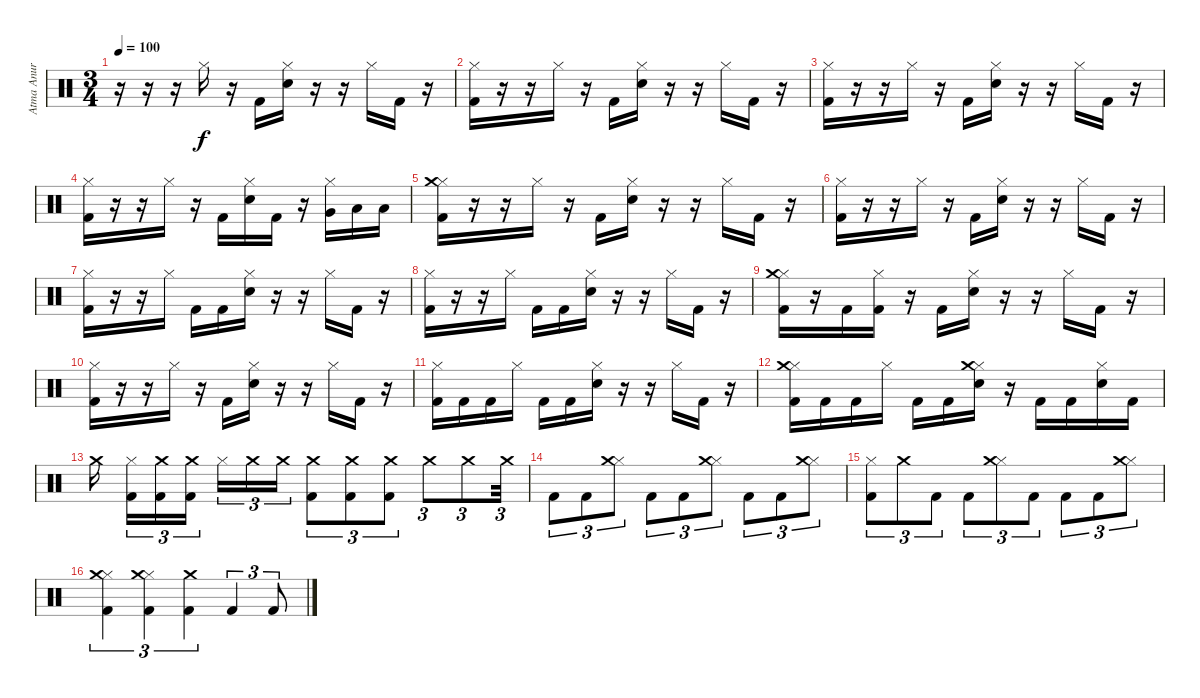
\track ("Atma Anur" "Atma Anur") {instrument percussion}
\staff {score}
\articulation defaults
\ts (3 4)
\tempo 100
\clef neutral
\ks c
r.16{dy f} r.16 r.16 "Hi-Hat (closed)".16 r.16 "Kick (hit) 2".16 ("Hi-Hat (closed)" "Snare (hit) 2").16 r.16 r.16 "Hi-Hat (closed)".16 "Kick (hit) 2".16 r.16 |
("Hi-Hat (closed)" "Kick (hit) 2").16 r.16 r.16 "Hi-Hat (closed)".16 r.16 "Kick (hit) 2".16 ("Hi-Hat (closed)" "Snare (hit) 2").16 r.16 r.16 "Hi-Hat (closed)".16 "Kick (hit) 2".16 r.16 |
("Hi-Hat (closed)" "Kick (hit) 2").16 r.16 r.16 "Hi-Hat (closed)".16 r.16 "Kick (hit) 2".16 ("Hi-Hat (closed)" "Snare (hit) 2").16 r.16 r.16 "Hi-Hat (closed)".16 "Kick (hit) 2".16 r.16 |
("Hi-Hat (closed)" "Kick (hit) 2").16 r.16 r.16 "Hi-Hat (closed)".16 r.16 "Kick (hit) 2".16 ("Hi-Hat (closed)" "Snare (hit) 2").16 "Kick (hit) 2".16 r.16 ("Hi-Hat (closed)" "Very Low Tom (hit)").16 "Low Floor Tom (hit)".16 "Low Floor Tom (hit)".16 |
("Hi-Hat (closed)" "Crash medium (hit)" "Kick (hit) 2").16 r.16 r.16 "Hi-Hat (closed)".16 r.16 "Kick (hit) 2".16 ("Hi-Hat (closed)" "Snare (hit) 2").16 r.16 r.16 "Hi-Hat (closed)".16 "Kick (hit) 2".16 r.16 |
("Hi-Hat (closed)" "Kick (hit) 2").16 r.16 r.16 "Hi-Hat (closed)".16 r.16 "Kick (hit) 2".16 ("Hi-Hat (closed)" "Snare (hit) 2").16 r.16 r.16 "Hi-Hat (closed)".16 "Kick (hit) 2".16 r.16 |
("Hi-Hat (closed)" "Kick (hit) 2").16 r.16 r.16 "Hi-Hat (closed)".16 "Kick (hit) 2".16 "Kick (hit) 2".16 ("Hi-Hat (closed)" "Snare (hit) 2").16 r.16 r.16 "Hi-Hat (closed)".16 "Kick (hit) 2".16 r.16 |
("Hi-Hat (closed)" "Kick (hit) 2").16 r.16 r.16 "Hi-Hat (closed)".16 "Kick (hit) 2".16 "Kick (hit) 2".16 ("Hi-Hat (closed)" "Snare (hit) 2").16 r.16 r.16 "Hi-Hat (closed)".16 "Kick (hit) 2".16 r.16 |
("Hi-Hat (closed)" "Crash medium (hit)" "Kick (hit) 2").16 r.16 "Kick (hit) 2".16 ("Hi-Hat (closed)" "Kick (hit) 2").16 r.16 "Kick (hit) 2".16 ("Hi-Hat (closed)" "Snare (hit) 2").16 r.16 r.16 "Hi-Hat (closed)".16 "Kick (hit) 2".16 r.16 |
("Hi-Hat (closed)" "Kick (hit) 2").16 r.16 r.16 "Hi-Hat (closed)".16 r.16 "Kick (hit) 2".16 ("Hi-Hat (closed)" "Snare (hit) 2").16 r.16 r.16 "Hi-Hat (closed)".16 "Kick (hit) 2".16 r.16 |
("Hi-Hat (closed)" "Kick (hit) 2").16 "Kick (hit) 2".16 "Kick (hit) 2".16 "Hi-Hat (closed)".16 "Kick (hit) 2".16 "Kick (hit) 2".16 ("Hi-Hat (closed)" "Snare (hit) 2").16 r.16 r.16 "Hi-Hat (closed)".16 "Kick (hit) 2".16 r.16 |
("Hi-Hat (closed)" "Crash medium (hit)" "Kick (hit) 2").16 "Kick (hit) 2".16 "Kick (hit) 2".16 "Hi-Hat (closed)".16 "Kick (hit) 2".16 "Kick (hit) 2".16 ("Hi-Hat (closed)" "Crash medium (hit)" "Snare (hit) 2").16 r.16 "Kick (hit) 2".16 "Kick (hit) 2".16 ("Hi-Hat (closed)" "Snare (hit) 2").16 "Kick (hit) 2".16 |
"Crash medium (hit)".16{beam splitsecondary} ("Hi-Hat (closed)" "Kick (hit) 2").16{tu (3 2)} ("Crash medium (hit)" "Kick (hit) 2").16{tu (3 2)} ("Crash medium (hit)" "Kick (hit) 2").16{tu (3 2) beam splitsecondary} "Hi-Hat (closed)".16{tu (3 2)} "Crash medium (hit)".16{tu (3 2)} "Crash medium (hit)".16{tu (3 2)} ("Crash medium (hit)" "Kick (hit) 2").8{tu (3 2)} ("Crash medium (hit)" "Kick (hit) 2").8{tu (3 2)} ("Crash medium (hit)" "Kick (hit) 2").8{tu (3 2)} "Crash medium (hit)".8{tu (3 2)} "Crash medium (hit)".8{tu (3 2)} "Crash medium (hit)".32{tu (3 2)} |
"Kick (hit) 2".8{tu (3 2)} "Kick (hit) 2".8{tu (3 2)} ("Hi-Hat (closed)" "Crash medium (hit)").8{tu (3 2)} "Kick (hit) 2".8{tu (3 2)} "Kick (hit) 2".8{tu (3 2)} ("Hi-Hat (closed)" "Crash medium (hit)").8{tu (3 2)} "Kick (hit) 2".8{tu (3 2)} "Kick (hit) 2".8{tu (3 2)} ("Hi-Hat (closed)" "Crash medium (hit)").8{tu (3 2)} |
("Hi-Hat (closed)" "Kick (hit) 2").8{tu (3 2)} "Crash medium (hit)".8{tu (3 2)} "Kick (hit) 2".8{tu (3 2)} "Kick (hit) 2".8{tu (3 2)} ("Hi-Hat (closed)" "Crash medium (hit)").8{tu (3 2)} "Kick (hit) 2".8{tu (3 2)} "Kick (hit) 2".8{tu (3 2)} "Kick (hit) 2".8{tu (3 2)} ("Hi-Hat (closed)" "Crash medium (hit)").8{tu (3 2)} |
("Hi-Hat (closed)" "Crash medium (hit)" "Kick (hit) 2").4{tu (3 2)} ("Hi-Hat (closed)" "Crash medium (hit)" "Kick (hit) 2").4{tu (3 2)} ("Crash medium (hit)" "Kick (hit) 2").4{tu (3 2)} "Kick (hit) 2".4{tu (3 2)} "Kick (hit) 2".8{tu (3 2)}
